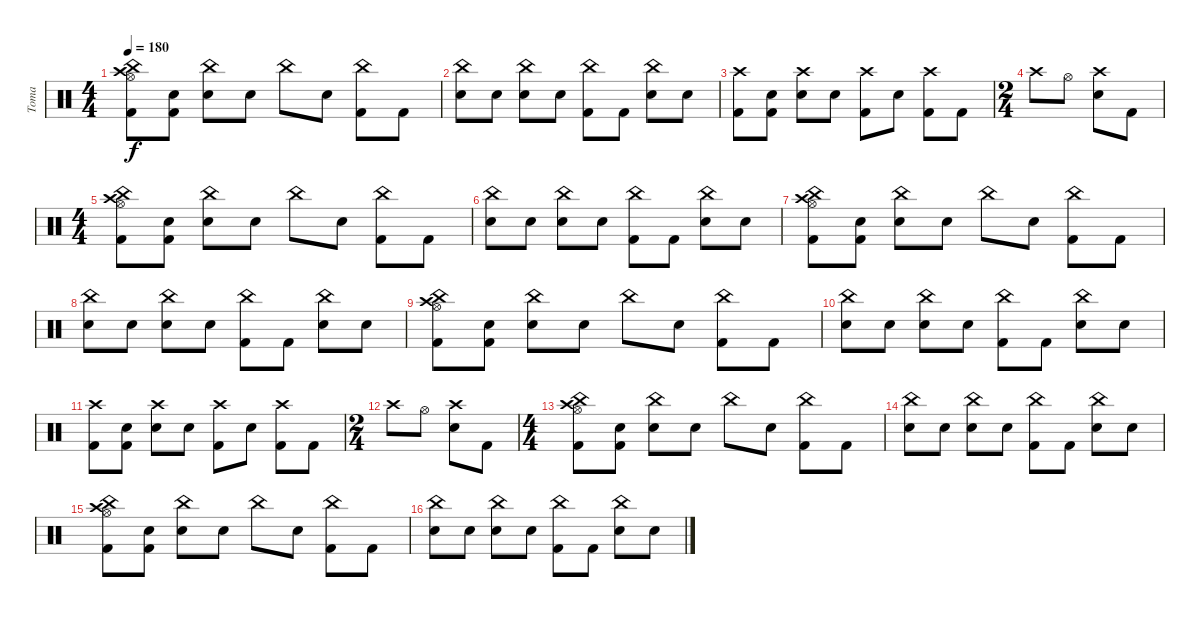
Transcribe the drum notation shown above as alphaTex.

\track ("Toma" "Toma") {instrument percussion}
\staff {score}
\articulation defaults
\ts (4 4)
\tempo 180
\clef neutral
\ks c
("China (hit)" "Kick (hit) 2" "Hi-Hat (open)" "Crash high (hit)").8{dy f} ("Kick (hit) 2" "Snare (hit)").8 ("China (hit)" "Snare (hit)").8 "Snare (hit)".8 "China (hit)".8 "Snare (hit)".8 ("China (hit)" "Kick (hit) 2").8 "Kick (hit) 2".8 |
("China (hit)" "Electric Snare (hit)").8 "Snare (hit)".8 ("China (hit)" "Snare (hit)").8 "Snare (hit)".8 ("China (hit)" "Kick (hit) 2").8 "Kick (hit) 2".8 ("China (hit)" "Snare (hit)").8 "Snare (hit)".8 |
("Crash high (hit)" "Kick (hit) 2").8 ("Snare (hit)" "Kick (hit) 2").8 ("Crash high (hit)" "Snare (hit)").8 "Electric Snare (hit)".8 ("Crash high (hit)" "Kick (hit) 2").8 "Snare (hit)".8 ("Crash high (hit)" "Kick (hit) 2").8 "Kick (hit) 2".8 |
\ts (2 4)
"Crash high (hit)".8 "Hi-Hat (open)".8 ("Crash high (hit)" "Snare (hit)").8 "Kick (hit) 2".8 |
\ts (4 4)
("China (hit)" "Kick (hit) 2" "Hi-Hat (open)" "Crash high (hit)").8 ("Kick (hit) 2" "Snare (hit)").8 ("China (hit)" "Snare (hit)").8 "Snare (hit)".8 "China (hit)".8 "Snare (hit)".8 ("China (hit)" "Kick (hit) 2").8 "Kick (hit) 2".8 |
("China (hit)" "Electric Snare (hit)").8 "Snare (hit)".8 ("China (hit)" "Snare (hit)").8 "Snare (hit)".8 ("China (hit)" "Kick (hit) 2").8 "Kick (hit) 2".8 ("China (hit)" "Snare (hit)").8 "Snare (hit)".8 |
("China (hit)" "Kick (hit) 2" "Hi-Hat (open)" "Crash high (hit)").8 ("Kick (hit) 2" "Snare (hit)").8 ("China (hit)" "Snare (hit)").8 "Snare (hit)".8 "China (hit)".8 "Snare (hit)".8 ("China (hit)" "Kick (hit) 2").8 "Kick (hit) 2".8 |
("China (hit)" "Electric Snare (hit)").8 "Snare (hit)".8 ("China (hit)" "Snare (hit)").8 "Snare (hit)".8 ("China (hit)" "Kick (hit) 2").8 "Kick (hit) 2".8 ("China (hit)" "Snare (hit)").8 "Snare (hit)".8 |
("China (hit)" "Kick (hit) 2" "Hi-Hat (open)" "Crash high (hit)").8 ("Kick (hit) 2" "Snare (hit)").8 ("China (hit)" "Snare (hit)").8 "Snare (hit)".8 "China (hit)".8 "Snare (hit)".8 ("China (hit)" "Kick (hit) 2").8 "Kick (hit) 2".8 |
("China (hit)" "Electric Snare (hit)").8 "Snare (hit)".8 ("China (hit)" "Snare (hit)").8 "Snare (hit)".8 ("China (hit)" "Kick (hit) 2").8 "Kick (hit) 2".8 ("China (hit)" "Snare (hit)").8 "Snare (hit)".8 |
("Crash high (hit)" "Kick (hit) 2").8 ("Snare (hit)" "Kick (hit) 2").8 ("Crash high (hit)" "Snare (hit)").8 "Electric Snare (hit)".8 ("Crash high (hit)" "Kick (hit) 2").8 "Snare (hit)".8 ("Crash high (hit)" "Kick (hit) 2").8 "Kick (hit) 2".8 |
\ts (2 4)
"Crash high (hit)".8 "Hi-Hat (open)".8 ("Crash high (hit)" "Snare (hit)").8 "Kick (hit) 2".8 |
\ts (4 4)
("China (hit)" "Kick (hit) 2" "Hi-Hat (open)" "Crash high (hit)").8 ("Kick (hit) 2" "Snare (hit)").8 ("China (hit)" "Snare (hit)").8 "Snare (hit)".8 "China (hit)".8 "Snare (hit)".8 ("China (hit)" "Kick (hit) 2").8 "Kick (hit) 2".8 |
("China (hit)" "Electric Snare (hit)").8 "Snare (hit)".8 ("China (hit)" "Snare (hit)").8 "Snare (hit)".8 ("China (hit)" "Kick (hit) 2").8 "Kick (hit) 2".8 ("China (hit)" "Snare (hit)").8 "Snare (hit)".8 |
("China (hit)" "Kick (hit) 2" "Hi-Hat (open)" "Crash high (hit)").8 ("Kick (hit) 2" "Snare (hit)").8 ("China (hit)" "Snare (hit)").8 "Snare (hit)".8 "China (hit)".8 "Snare (hit)".8 ("China (hit)" "Kick (hit) 2").8 "Kick (hit) 2".8 |
("China (hit)" "Electric Snare (hit)").8 "Snare (hit)".8 ("China (hit)" "Snare (hit)").8 "Snare (hit)".8 ("China (hit)" "Kick (hit) 2").8 "Kick (hit) 2".8 ("China (hit)" "Snare (hit)").8 "Snare (hit)".8
